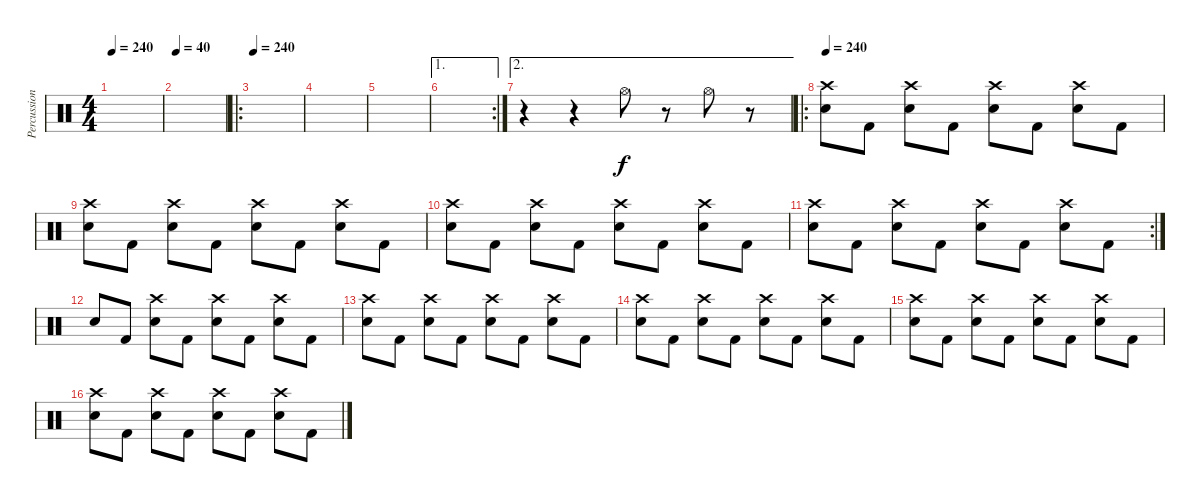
\track ("Percussion" "Percussion") {instrument percussion}
\staff {score}
\articulation defaults
\ts (4 4)
\tempo 240
\tempo 160
\tempo 240
\clef neutral
\ks c
|
\tempo 40
|
\ro
\tempo 240
|
|
|
\ae 1
\rc 2
|
\ae 2
r.4 r.4 "Hi-Hat (open)".8 r.8 "Hi-Hat (open)".8 r.8 |
\ro
\tempo 240
("Crash high (hit)" "Electric Snare (hit)").8 "Kick (hit) 2".8 ("Crash high (hit)" "Electric Snare (hit)").8 "Kick (hit) 2".8 ("Crash high (hit)" "Electric Snare (hit)").8 "Kick (hit) 2".8 ("Crash high (hit)" "Electric Snare (hit)").8 "Kick (hit) 2".8 |
("Crash high (hit)" "Electric Snare (hit)").8 "Kick (hit) 2".8 ("Crash high (hit)" "Electric Snare (hit)").8 "Kick (hit) 2".8 ("Crash high (hit)" "Electric Snare (hit)").8 "Kick (hit) 2".8 ("Crash high (hit)" "Electric Snare (hit)").8 "Kick (hit) 2".8 |
("Crash high (hit)" "Electric Snare (hit)").8 "Kick (hit) 2".8 ("Crash high (hit)" "Electric Snare (hit)").8 "Kick (hit) 2".8 ("Crash high (hit)" "Electric Snare (hit)").8 "Kick (hit) 2".8 ("Crash high (hit)" "Electric Snare (hit)").8 "Kick (hit) 2".8 |
\rc 2
("Crash high (hit)" "Electric Snare (hit)").8 "Kick (hit) 2".8 ("Crash high (hit)" "Electric Snare (hit)").8 "Kick (hit) 2".8 ("Crash high (hit)" "Electric Snare (hit)").8 "Kick (hit) 2".8 ("Crash high (hit)" "Electric Snare (hit)").8 "Kick (hit) 2".8 |
"Electric Snare (hit)".8 "Kick (hit) 2".8 ("Crash high (hit)" "Electric Snare (hit)").8 "Kick (hit) 2".8 ("Crash high (hit)" "Electric Snare (hit)").8 "Kick (hit) 2".8 ("Crash high (hit)" "Electric Snare (hit)").8 "Kick (hit) 2".8 |
("Crash high (hit)" "Electric Snare (hit)").8 "Kick (hit) 2".8 ("Crash high (hit)" "Electric Snare (hit)").8 "Kick (hit) 2".8 ("Crash high (hit)" "Electric Snare (hit)").8 "Kick (hit) 2".8 ("Crash high (hit)" "Electric Snare (hit)").8 "Kick (hit) 2".8 |
("Crash high (hit)" "Electric Snare (hit)").8 "Kick (hit) 2".8 ("Crash high (hit)" "Electric Snare (hit)").8 "Kick (hit) 2".8 ("Crash high (hit)" "Electric Snare (hit)").8 "Kick (hit) 2".8 ("Crash high (hit)" "Electric Snare (hit)").8 "Kick (hit) 2".8 |
("Crash high (hit)" "Electric Snare (hit)").8 "Kick (hit) 2".8 ("Crash high (hit)" "Electric Snare (hit)").8 "Kick (hit) 2".8 ("Crash high (hit)" "Electric Snare (hit)").8 "Kick (hit) 2".8 ("Crash high (hit)" "Electric Snare (hit)").8 "Kick (hit) 2".8 |
("Crash high (hit)" "Electric Snare (hit)").8 "Kick (hit) 2".8 ("Crash high (hit)" "Electric Snare (hit)").8 "Kick (hit) 2".8 ("Crash high (hit)" "Electric Snare (hit)").8 "Kick (hit) 2".8 ("Crash high (hit)" "Electric Snare (hit)").8 "Kick (hit) 2".8
